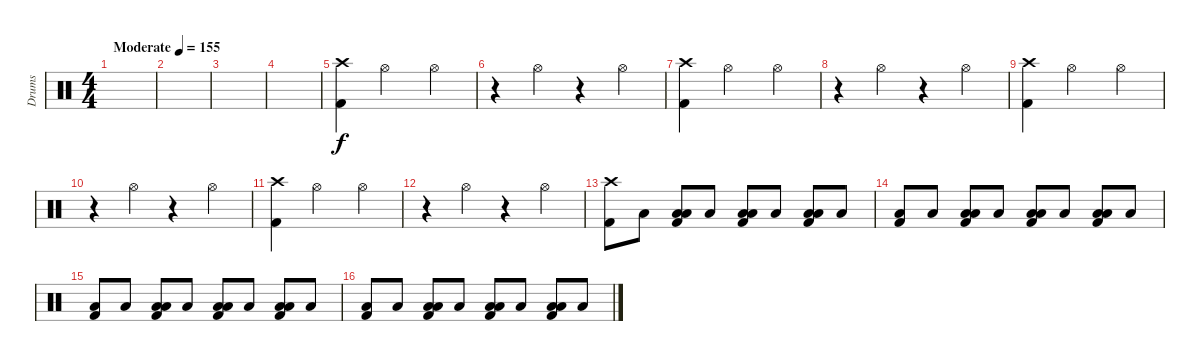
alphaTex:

\track ("Drums" "Drums") {instrument percussion}
\staff {score}
\articulation defaults
\ts (4 4)
\tempo (155 "Moderate")
\clef neutral
\ks c
|
|
|
|
("Crash high (hit)" "Kick (hit) 2").4 "Hi-Hat (open)".2 "Hi-Hat (open)".4 |
r.4 "Hi-Hat (open)".4 r.4 "Hi-Hat (open)".4 |
("Crash high (hit)" "Kick (hit) 2").4 "Hi-Hat (open)".2 "Hi-Hat (open)".4 |
r.4 "Hi-Hat (open)".4 r.4 "Hi-Hat (open)".4 |
("Crash high (hit)" "Kick (hit) 2").4 "Hi-Hat (open)".2 "Hi-Hat (open)".4 |
r.4 "Hi-Hat (open)".4 r.4 "Hi-Hat (open)".4 |
("Crash high (hit)" "Kick (hit) 2").4 "Hi-Hat (open)".2 "Hi-Hat (open)".4 |
r.4 "Hi-Hat (open)".4 r.4 "Hi-Hat (open)".4 |
("Crash high (hit)" "Kick (hit) 2").8 "Low Floor Tom (hit)".8 ("Low Floor Tom (hit)" "Kick (hit) 2" "Low Tom (hit)").8 "Low Floor Tom (hit)".8 ("Low Floor Tom (hit)" "Kick (hit) 2" "Low Tom (hit)").8 "Low Floor Tom (hit)".8 ("Low Floor Tom (hit)" "Kick (hit) 2" "Low Tom (hit)").8 "Low Floor Tom (hit)".8 |
("Low Floor Tom (hit)" "Kick (hit) 2").8 "Low Floor Tom (hit)".8 ("Low Floor Tom (hit)" "Kick (hit) 2" "Low Tom (hit)").8 "Low Floor Tom (hit)".8 ("Low Floor Tom (hit)" "Kick (hit) 2" "Low Tom (hit)").8 "Low Floor Tom (hit)".8 ("Low Floor Tom (hit)" "Kick (hit) 2" "Low Tom (hit)").8 "Low Floor Tom (hit)".8 |
("Low Floor Tom (hit)" "Kick (hit) 2").8 "Low Floor Tom (hit)".8 ("Low Floor Tom (hit)" "Kick (hit) 2" "Low Tom (hit)").8 "Low Floor Tom (hit)".8 ("Low Floor Tom (hit)" "Kick (hit) 2" "Low Tom (hit)").8 "Low Floor Tom (hit)".8 ("Low Floor Tom (hit)" "Kick (hit) 2" "Low Tom (hit)").8 "Low Floor Tom (hit)".8 |
("Low Floor Tom (hit)" "Kick (hit) 2").8 "Low Floor Tom (hit)".8 ("Low Floor Tom (hit)" "Kick (hit) 2" "Low Tom (hit)").8 "Low Floor Tom (hit)".8 ("Low Floor Tom (hit)" "Kick (hit) 2" "Low Tom (hit)").8 "Low Floor Tom (hit)".8 ("Low Floor Tom (hit)" "Kick (hit) 2" "Low Tom (hit)").8 "Low Floor Tom (hit)".8
